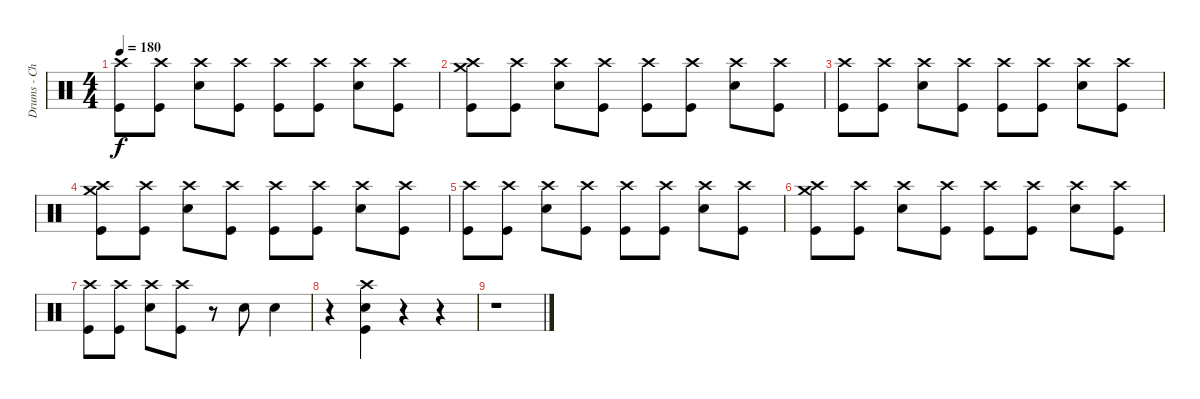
\track ("Drums - Chris Dangerous" "Drums - Ch") {instrument percussion}
\staff {score}
\articulation defaults
\ts (4 4)
\tempo 180
\clef neutral
\ks c
("Crash high (hit)" "Kick (hit)").8{dy f} ("Crash high (hit)" "Kick (hit)").8 ("Crash high (hit)" "Snare (hit) 2").8 ("Crash high (hit)" "Kick (hit)").8 ("Crash high (hit)" "Kick (hit)").8 ("Crash high (hit)" "Kick (hit)").8 ("Crash high (hit)" "Snare (hit) 2").8 ("Crash high (hit)" "Kick (hit)").8 |
("Crash high (hit)" "Kick (hit)" "Crash medium (hit)").8 ("Crash high (hit)" "Kick (hit)").8 ("Crash high (hit)" "Snare (hit) 2").8 ("Crash high (hit)" "Kick (hit)").8 ("Crash high (hit)" "Kick (hit)").8 ("Crash high (hit)" "Kick (hit)").8 ("Crash high (hit)" "Snare (hit) 2").8 ("Crash high (hit)" "Kick (hit)").8 |
("Crash high (hit)" "Kick (hit)").8 ("Crash high (hit)" "Kick (hit)").8 ("Crash high (hit)" "Snare (hit) 2").8 ("Crash high (hit)" "Kick (hit)").8 ("Crash high (hit)" "Kick (hit)").8 ("Crash high (hit)" "Kick (hit)").8 ("Crash high (hit)" "Snare (hit) 2").8 ("Crash high (hit)" "Kick (hit)").8 |
("Crash high (hit)" "Kick (hit)" "Crash medium (hit)").8 ("Crash high (hit)" "Kick (hit)").8 ("Crash high (hit)" "Snare (hit) 2").8 ("Crash high (hit)" "Kick (hit)").8 ("Crash high (hit)" "Kick (hit)").8 ("Crash high (hit)" "Kick (hit)").8 ("Crash high (hit)" "Snare (hit) 2").8 ("Crash high (hit)" "Kick (hit)").8 |
("Crash high (hit)" "Kick (hit)").8 ("Crash high (hit)" "Kick (hit)").8 ("Crash high (hit)" "Snare (hit) 2").8 ("Crash high (hit)" "Kick (hit)").8 ("Crash high (hit)" "Kick (hit)").8 ("Crash high (hit)" "Kick (hit)").8 ("Crash high (hit)" "Snare (hit) 2").8 ("Crash high (hit)" "Kick (hit)").8 |
("Crash high (hit)" "Kick (hit)" "Crash medium (hit)").8 ("Crash high (hit)" "Kick (hit)").8 ("Crash high (hit)" "Snare (hit) 2").8 ("Crash high (hit)" "Kick (hit)").8 ("Crash high (hit)" "Kick (hit)").8 ("Crash high (hit)" "Kick (hit)").8 ("Crash high (hit)" "Snare (hit) 2").8 ("Crash high (hit)" "Kick (hit)").8 |
("Crash high (hit)" "Kick (hit)").8 ("Crash high (hit)" "Kick (hit)").8 ("Crash high (hit)" "Snare (hit) 2").8 ("Crash high (hit)" "Kick (hit)").8 r.8 "Snare (hit) 2".8 "Snare (hit) 2".4 |
r.4 ("Crash high (hit)" "Snare (hit) 2" "Kick (hit)").4 r.4 r.4 |
r.1
